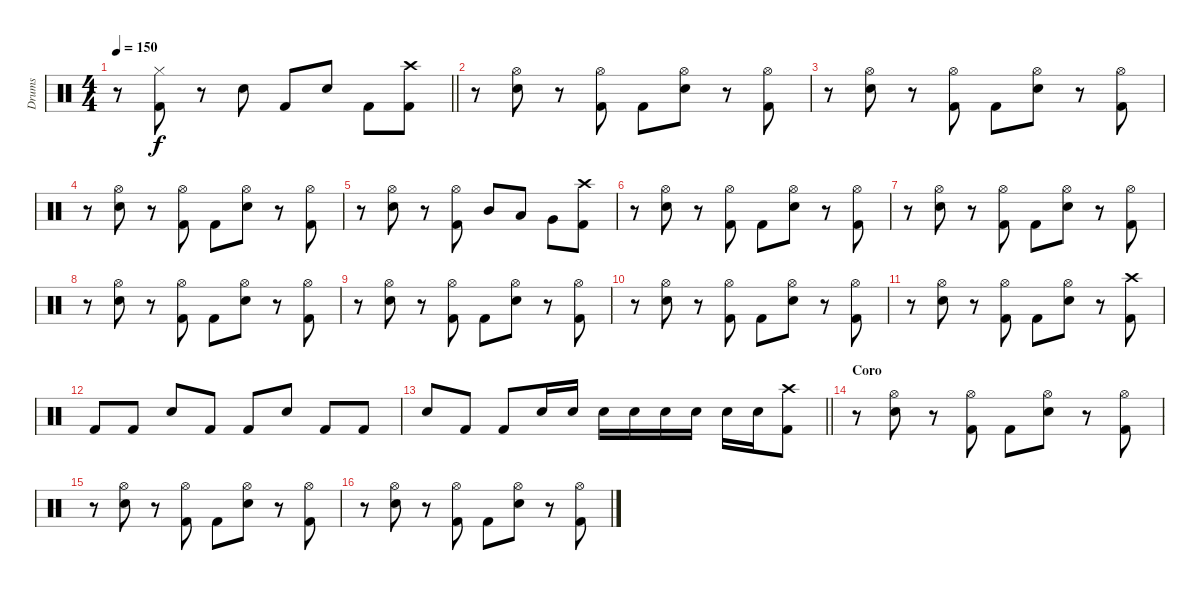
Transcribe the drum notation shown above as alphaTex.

\track ("Drums" "Drums") {instrument percussion}
\staff {score}
\articulation defaults
\ts (4 4)
\section ("" "")
\tempo 150
\clef neutral
\barLineRight lightlight
\ks c
r.8{dy f} ("Kick (hit) 2" "Hi-Hat (closed)").8 r.8 "Snare (hit) 2".8 "Kick (hit) 2".8 "Snare (hit) 2".8 "Kick (hit) 2".8 ("Kick (hit) 2" "Crash high (hit)").8 |
\section ("" "")
r.8 ("Snare (hit) 2" "Hi-Hat (open)").8 r.8 ("Kick (hit) 2" "Hi-Hat (open)").8 "Kick (hit) 2".8 ("Snare (hit) 2" "Hi-Hat (open)").8 r.8 ("Kick (hit) 2" "Hi-Hat (open)").8 |
r.8 ("Snare (hit) 2" "Hi-Hat (open)").8 r.8 ("Kick (hit) 2" "Hi-Hat (open)").8 "Kick (hit) 2".8 ("Snare (hit) 2" "Hi-Hat (open)").8 r.8 ("Kick (hit) 2" "Hi-Hat (open)").8 |
r.8 ("Snare (hit) 2" "Hi-Hat (open)").8 r.8 ("Kick (hit) 2" "Hi-Hat (open)").8 "Kick (hit) 2".8 ("Snare (hit) 2" "Hi-Hat (open)").8 r.8 ("Kick (hit) 2" "Hi-Hat (open)").8 |
r.8 ("Snare (hit) 2" "Hi-Hat (open)").8 r.8 ("Kick (hit) 2" "Hi-Hat (open)").8 "Mid Tom (hit)".8 "Low Tom (hit)".8 "Very Low Tom (hit)".8 ("Kick (hit) 2" "Crash high (hit)").8 |
r.8 ("Snare (hit) 2" "Hi-Hat (open)").8 r.8 ("Kick (hit) 2" "Hi-Hat (open)").8 "Kick (hit) 2".8 ("Snare (hit) 2" "Hi-Hat (open)").8 r.8 ("Kick (hit) 2" "Hi-Hat (open)").8 |
r.8 ("Snare (hit) 2" "Hi-Hat (open)").8 r.8 ("Kick (hit) 2" "Hi-Hat (open)").8 "Kick (hit) 2".8 ("Snare (hit) 2" "Hi-Hat (open)").8 r.8 ("Kick (hit) 2" "Hi-Hat (open)").8 |
r.8 ("Snare (hit) 2" "Hi-Hat (open)").8 r.8 ("Kick (hit) 2" "Hi-Hat (open)").8 "Kick (hit) 2".8 ("Snare (hit) 2" "Hi-Hat (open)").8 r.8 ("Kick (hit) 2" "Hi-Hat (open)").8 |
r.8 ("Snare (hit) 2" "Hi-Hat (open)").8 r.8 ("Kick (hit) 2" "Hi-Hat (open)").8 "Kick (hit) 2".8 ("Snare (hit) 2" "Hi-Hat (open)").8 r.8 ("Kick (hit) 2" "Hi-Hat (open)").8 |
r.8 ("Snare (hit) 2" "Hi-Hat (open)").8 r.8 ("Kick (hit) 2" "Hi-Hat (open)").8 "Kick (hit) 2".8 ("Snare (hit) 2" "Hi-Hat (open)").8 r.8 ("Kick (hit) 2" "Hi-Hat (open)").8 |
r.8 ("Snare (hit) 2" "Hi-Hat (open)").8 r.8 ("Kick (hit) 2" "Hi-Hat (open)").8 "Kick (hit) 2".8 ("Snare (hit) 2" "Hi-Hat (open)").8 r.8 ("Kick (hit) 2" "Crash high (hit)").8 |
"Kick (hit) 2".8 "Kick (hit) 2".8 "Snare (hit) 2".8 "Kick (hit) 2".8 "Kick (hit) 2".8 "Snare (hit) 2".8 "Kick (hit) 2".8 "Kick (hit) 2".8 |
\barLineRight lightlight "Snare (hit) 2".8 "Kick (hit) 2".8 "Kick (hit) 2".8 "Snare (hit) 2".16 "Snare (hit) 2".16 "Snare (hit) 2".16 "Snare (hit) 2".16 "Snare (hit) 2".16 "Snare (hit) 2".16 "Snare (hit) 2".16 "Snare (hit) 2".16
("Kick (hit) 2" "Crash high (hit)").8 |
\section ("" "Coro")
r.8 ("Snare (hit) 2" "Hi-Hat (open)").8 r.8 ("Kick (hit) 2" "Hi-Hat (open)").8 "Kick (hit) 2".8 ("Snare (hit) 2" "Hi-Hat (open)").8 r.8 ("Kick (hit) 2" "Hi-Hat (open)").8 |
r.8 ("Snare (hit) 2" "Hi-Hat (open)").8 r.8 ("Kick (hit) 2" "Hi-Hat (open)").8 "Kick (hit) 2".8 ("Snare (hit) 2" "Hi-Hat (open)").8 r.8 ("Kick (hit) 2" "Hi-Hat (open)").8 |
r.8 ("Snare (hit) 2" "Hi-Hat (open)").8 r.8 ("Kick (hit) 2" "Hi-Hat (open)").8 "Kick (hit) 2".8 ("Snare (hit) 2" "Hi-Hat (open)").8 r.8 ("Kick (hit) 2" "Hi-Hat (open)").8
